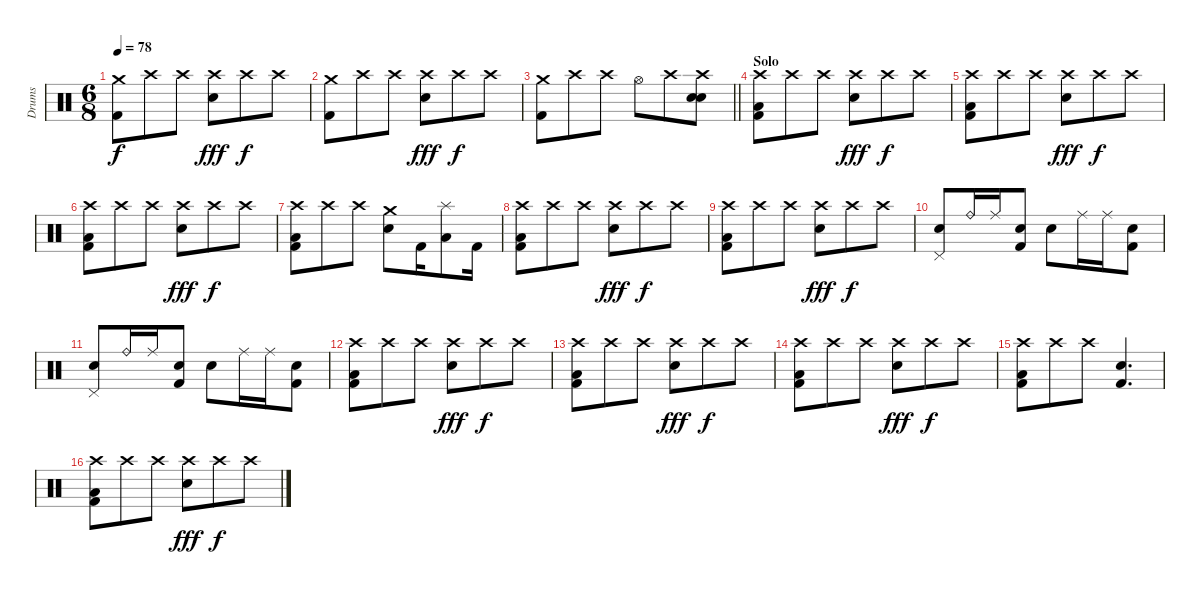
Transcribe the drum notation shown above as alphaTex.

\track ("Drums" "Drums") {instrument percussion}
\staff {score}
\articulation defaults
\ts (6 8)
\tempo 78
\clef neutral
\ks c
("Crash medium (hit)" "Kick (hit) 2").8{dy f} "Crash high (hit)".8 "Crash high (hit)".8 ("Crash high (hit)" "Snare (hit) 2").8{dy fff} "Crash high (hit)".8{dy f} "Crash high (hit)".8 |
("Crash medium (hit)" "Kick (hit) 2").8 "Crash high (hit)".8 "Crash high (hit)".8 ("Crash high (hit)" "Snare (hit) 2").8{dy fff} "Crash high (hit)".8{dy f} "Crash high (hit)".8 |
\barLineRight lightlight
("Crash medium (hit)" "Kick (hit) 2").8 "Crash high (hit)".8 "Crash high (hit)".8 "Hi-Hat (open)".8 "Crash high (hit)".8 ("Crash high (hit)" "Snare (hit) 2" "Snare (hit) 2").8 |
\section ("" "Solo")
("Crash high (hit)" "Low Floor Tom (hit)" "Kick (hit) 2").8 "Crash high (hit)".8 "Crash high (hit)".8 ("Crash high (hit)" "Snare (hit) 2").8{dy fff} "Crash high (hit)".8{dy f} "Crash high (hit)".8 |
("Crash high (hit)" "Low Floor Tom (hit)" "Kick (hit) 2").8 "Crash high (hit)".8 "Crash high (hit)".8 ("Crash high (hit)" "Snare (hit) 2").8{dy fff} "Crash high (hit)".8{dy f} "Crash high (hit)".8 |
("Crash high (hit)" "Low Floor Tom (hit)" "Kick (hit) 2").8 "Crash high (hit)".8 "Crash high (hit)".8 ("Crash high (hit)" "Snare (hit) 2").8{dy fff} "Crash high (hit)".8{dy f} "Crash high (hit)".8 |
("Crash high (hit)" "Low Floor Tom (hit)" "Kick (hit) 2").8 "Crash high (hit)".8 "Crash high (hit)".8 ("Crash medium (hit)" "Snare (hit) 2").8 "Kick (hit) 2".16 ("Splash (hit)" "Low Tom (hit)").8 "Kick (hit) 2".16 |
("Crash high (hit)" "Low Floor Tom (hit)" "Kick (hit) 2").8 "Crash high (hit)".8 "Crash high (hit)".8 ("Crash high (hit)" "Snare (hit) 2").8{dy fff} "Crash high (hit)".8{dy f} "Crash high (hit)".8 |
("Crash high (hit)" "Low Floor Tom (hit)" "Kick (hit) 2").8 "Crash high (hit)".8 "Crash high (hit)".8 ("Crash high (hit)" "Snare (hit) 2").8{dy fff} "Crash high (hit)".8{dy f} "Crash high (hit)".8 |
("Pedal Hi-Hat (hit)" "Snare (hit) 2").8 "Ride (bell)".16 "Ride (middle)".16 ("Snare (hit) 2" "Kick (hit) 2").8 "Snare (hit) 2".8 "Ride (middle)".16 "Ride (middle)".16 ("Snare (hit) 2" "Kick (hit) 2").8 |
("Pedal Hi-Hat (hit)" "Snare (hit) 2").8 "Ride (bell)".16 "Ride (middle)".16 ("Snare (hit) 2" "Kick (hit) 2").8 "Snare (hit) 2".8 "Ride (middle)".16 "Ride (middle)".16 ("Snare (hit) 2" "Kick (hit) 2").8 |
("Crash high (hit)" "Low Floor Tom (hit)" "Kick (hit) 2").8 "Crash high (hit)".8 "Crash high (hit)".8 ("Crash high (hit)" "Snare (hit) 2").8{dy fff} "Crash high (hit)".8{dy f} "Crash high (hit)".8 |
("Crash high (hit)" "Low Floor Tom (hit)" "Kick (hit) 2").8 "Crash high (hit)".8 "Crash high (hit)".8 ("Crash high (hit)" "Snare (hit) 2").8{dy fff} "Crash high (hit)".8{dy f} "Crash high (hit)".8 |
("Crash high (hit)" "Low Floor Tom (hit)" "Kick (hit) 2").8 "Crash high (hit)".8 "Crash high (hit)".8 ("Crash high (hit)" "Snare (hit) 2").8{dy fff} "Crash high (hit)".8{dy f} "Crash high (hit)".8 |
("Crash high (hit)" "Low Floor Tom (hit)" "Kick (hit) 2").8 "Crash high (hit)".8 "Crash high (hit)".8 ("Snare (hit) 2" "Kick (hit) 2").4{d} |
("Crash high (hit)" "Low Floor Tom (hit)" "Kick (hit) 2").8 "Crash high (hit)".8 "Crash high (hit)".8 ("Crash high (hit)" "Snare (hit) 2").8{dy fff} "Crash high (hit)".8{dy f} "Crash high (hit)".8
